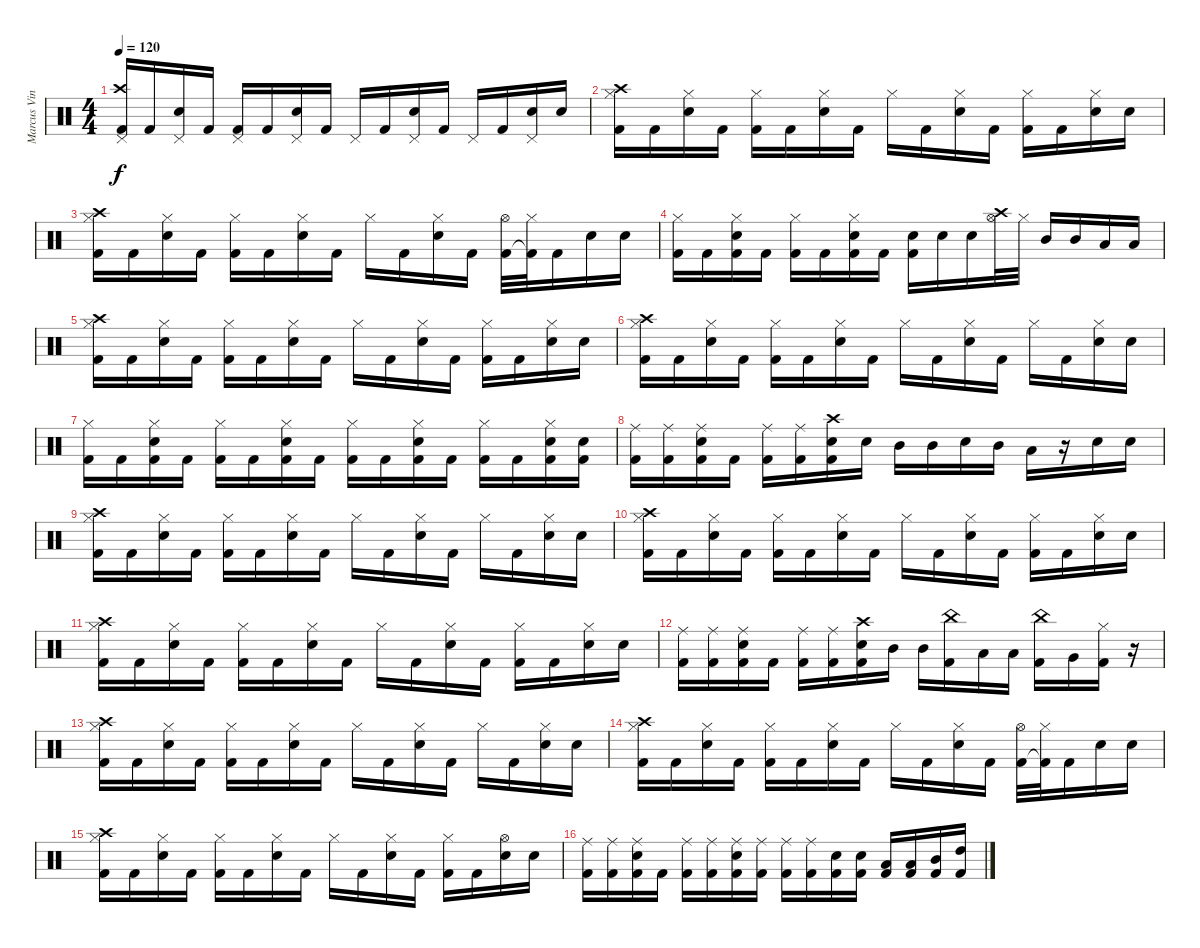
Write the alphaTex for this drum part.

\track ("Marcus Vinicius" "Marcus Vin") {instrument percussion}
\staff {score}
\articulation defaults
\ts (4 4)
\tempo 120
\clef neutral
\ks c
("Kick (hit) 2" "Crash high (hit)" "Pedal Hi-Hat (hit)").16{dy f} "Kick (hit) 2".16 ("Electric Snare (hit)" "Pedal Hi-Hat (hit)").16 "Kick (hit) 2".16 ("Kick (hit) 2" "Pedal Hi-Hat (hit)").16 "Kick (hit) 2".16 ("Electric Snare (hit)" "Pedal Hi-Hat (hit)").16 "Kick (hit) 2".16 "Pedal Hi-Hat (hit)".16 "Kick (hit) 2".16 ("Electric Snare (hit)" "Pedal Hi-Hat (hit)").16 "Kick (hit) 2".16 "Pedal Hi-Hat (hit)".16 "Kick (hit) 2".16 ("Electric Snare (hit)" "Pedal Hi-Hat (hit)").16 "Electric Snare (hit)".16 |
("Kick (hit) 2" "Crash high (hit)" "Hi-Hat (closed)").16 "Kick (hit) 2".16 ("Electric Snare (hit)" "Hi-Hat (closed)").16 "Kick (hit) 2".16 ("Kick (hit) 2" "Hi-Hat (closed)").16 "Kick (hit) 2".16 ("Electric Snare (hit)" "Hi-Hat (closed)").16 "Kick (hit) 2".16 "Hi-Hat (closed)".16 "Kick (hit) 2".16 ("Electric Snare (hit)" "Hi-Hat (closed)").16 "Kick (hit) 2".16 ("Kick (hit) 2" "Hi-Hat (closed)").16 "Kick (hit) 2".16 ("Electric Snare (hit)" "Hi-Hat (closed)").16 "Electric Snare (hit)".16 |
("Kick (hit) 2" "Crash high (hit)" "Hi-Hat (closed)").16 "Kick (hit) 2".16 ("Electric Snare (hit)" "Hi-Hat (closed)").16 "Kick (hit) 2".16 ("Kick (hit) 2" "Hi-Hat (closed)").16 "Kick (hit) 2".16 ("Electric Snare (hit)" "Hi-Hat (closed)").16 "Kick (hit) 2".16 "Hi-Hat (closed)".16 "Kick (hit) 2".16 ("Electric Snare (hit)" "Hi-Hat (closed)").16 "Kick (hit) 2".16 ("Kick (hit) 2" "Hi-Hat (open)").32 ("Kick (hit) 2"{t} "Hi-Hat (closed)").32 "Kick (hit) 2".16 "Electric Snare (hit)".16 "Electric Snare (hit)".16 |
("Kick (hit) 2" "Hi-Hat (closed)").16 "Kick (hit) 2".16 ("Kick (hit) 2" "Electric Snare (hit)" "Hi-Hat (closed)").16 "Kick (hit) 2".16 ("Kick (hit) 2" "Hi-Hat (closed)").16 "Kick (hit) 2".16 ("Kick (hit) 2" "Electric Snare (hit)" "Hi-Hat (closed)").16 "Kick (hit) 2".16 ("Kick (hit) 2" "Electric Snare (hit)").16 "Electric Snare (hit)".16 "Electric Snare (hit)".16 ("Hi-Hat (open)" "Crash high (hit)").32 "Hi-Hat (closed)".32 "Mid Tom (hit)".16 "Mid Tom (hit)".16 "Low Tom (hit)".16 "Low Tom (hit)".16 |
("Kick (hit) 2" "Crash high (hit)" "Hi-Hat (closed)").16 "Kick (hit) 2".16 ("Electric Snare (hit)" "Hi-Hat (closed)").16 "Kick (hit) 2".16 ("Kick (hit) 2" "Hi-Hat (closed)").16 "Kick (hit) 2".16 ("Electric Snare (hit)" "Hi-Hat (closed)").16 "Kick (hit) 2".16 "Hi-Hat (closed)".16 "Kick (hit) 2".16 ("Electric Snare (hit)" "Hi-Hat (closed)").16 "Kick (hit) 2".16 ("Kick (hit) 2" "Hi-Hat (closed)").16 "Kick (hit) 2".16 ("Electric Snare (hit)" "Hi-Hat (closed)").16 "Electric Snare (hit)".16 |
("Kick (hit) 2" "Crash high (hit)" "Hi-Hat (closed)").16 "Kick (hit) 2".16 ("Electric Snare (hit)" "Hi-Hat (closed)").16 "Kick (hit) 2".16 ("Kick (hit) 2" "Hi-Hat (closed)").16 "Kick (hit) 2".16 ("Electric Snare (hit)" "Hi-Hat (closed)").16 "Kick (hit) 2".16 "Hi-Hat (closed)".16 "Kick (hit) 2".16 ("Electric Snare (hit)" "Hi-Hat (closed)").16 "Kick (hit) 2".16 "Hi-Hat (closed)".16 "Kick (hit) 2".16 ("Electric Snare (hit)" "Hi-Hat (closed)").16 "Electric Snare (hit)".16 |
("Kick (hit) 2" "Hi-Hat (closed)").16 "Kick (hit) 2".16 ("Kick (hit) 2" "Electric Snare (hit)" "Hi-Hat (closed)").16 "Kick (hit) 2".16 ("Kick (hit) 2" "Hi-Hat (closed)").16 "Kick (hit) 2".16 ("Kick (hit) 2" "Electric Snare (hit)" "Hi-Hat (closed)").16 "Kick (hit) 2".16 ("Kick (hit) 2" "Hi-Hat (closed)").16 "Kick (hit) 2".16 ("Kick (hit) 2" "Electric Snare (hit)" "Hi-Hat (closed)").16 "Kick (hit) 2".16 ("Kick (hit) 2" "Hi-Hat (closed)").16 "Kick (hit) 2".16 ("Kick (hit) 2" "Electric Snare (hit)" "Hi-Hat (closed)").16 ("Kick (hit) 2" "Electric Snare (hit)").16 |
("Kick (hit) 2" "Ride (middle)").16 ("Kick (hit) 2" "Ride (middle)").16 ("Kick (hit) 2" "Electric Snare (hit)" "Ride (middle)").16 "Kick (hit) 2".16 ("Kick (hit) 2" "Ride (middle)").16 ("Kick (hit) 2" "Ride (middle)").16 ("Kick (hit) 2" "Electric Snare (hit)" "Crash high (hit)").16 "Electric Snare (hit)".16 "Mid Tom (hit)".16 "Mid Tom (hit)".16 "Electric Snare (hit)".16 "Mid Tom (hit)".16 "Low Tom (hit)".16 r.16 "Electric Snare (hit)".16 "Electric Snare (hit)".16 |
("Kick (hit) 2" "Crash high (hit)" "Hi-Hat (closed)").16 "Kick (hit) 2".16 ("Electric Snare (hit)" "Hi-Hat (closed)").16 "Kick (hit) 2".16 ("Kick (hit) 2" "Hi-Hat (closed)").16 "Kick (hit) 2".16 ("Electric Snare (hit)" "Hi-Hat (closed)").16 "Kick (hit) 2".16 "Hi-Hat (closed)".16 "Kick (hit) 2".16 ("Electric Snare (hit)" "Hi-Hat (closed)").16 "Kick (hit) 2".16 "Hi-Hat (closed)".16 "Kick (hit) 2".16 ("Electric Snare (hit)" "Hi-Hat (closed)").16 "Electric Snare (hit)".16 |
("Kick (hit) 2" "Crash high (hit)" "Hi-Hat (closed)").16 "Kick (hit) 2".16 ("Electric Snare (hit)" "Hi-Hat (closed)").16 "Kick (hit) 2".16 ("Kick (hit) 2" "Hi-Hat (closed)").16 "Kick (hit) 2".16 ("Electric Snare (hit)" "Hi-Hat (closed)").16 "Kick (hit) 2".16 "Hi-Hat (closed)".16 "Kick (hit) 2".16 ("Electric Snare (hit)" "Hi-Hat (closed)").16 "Kick (hit) 2".16 ("Kick (hit) 2" "Hi-Hat (closed)").16 "Kick (hit) 2".16 ("Electric Snare (hit)" "Hi-Hat (closed)").16 "Electric Snare (hit)".16 |
("Kick (hit) 2" "Crash high (hit)" "Hi-Hat (closed)").16 "Kick (hit) 2".16 ("Electric Snare (hit)" "Hi-Hat (closed)").16 "Kick (hit) 2".16 ("Kick (hit) 2" "Hi-Hat (closed)").16 "Kick (hit) 2".16 ("Electric Snare (hit)" "Hi-Hat (closed)").16 "Kick (hit) 2".16 "Hi-Hat (closed)".16 "Kick (hit) 2".16 ("Electric Snare (hit)" "Hi-Hat (closed)").16 "Kick (hit) 2".16 ("Kick (hit) 2" "Hi-Hat (closed)").16 "Kick (hit) 2".16 ("Electric Snare (hit)" "Hi-Hat (closed)").16 "Electric Snare (hit)".16 |
("Kick (hit) 2" "Ride (middle)").16 ("Kick (hit) 2" "Ride (middle)").16 ("Kick (hit) 2" "Electric Snare (hit)" "Ride (middle)").16 "Kick (hit) 2".16 ("Kick (hit) 2" "Ride (middle)").16 ("Kick (hit) 2" "Ride (middle)").16 ("Kick (hit) 2" "Electric Snare (hit)" "Crash high (hit)").16 "Mid Tom (hit)".16 "Mid Tom (hit)".16 ("Kick (hit) 2" "China (hit)").16 "Low Tom (hit)".16 "Low Tom (hit)".16 ("Kick (hit) 2" "China (hit)").16 "Very Low Tom (hit)".16 ("Kick (hit) 2" "Hi-Hat (closed)").16 r.16 |
("Kick (hit) 2" "Crash high (hit)" "Hi-Hat (closed)").16 "Kick (hit) 2".16 ("Electric Snare (hit)" "Hi-Hat (closed)").16 "Kick (hit) 2".16 ("Kick (hit) 2" "Hi-Hat (closed)").16 "Kick (hit) 2".16 ("Electric Snare (hit)" "Hi-Hat (closed)").16 "Kick (hit) 2".16 "Hi-Hat (closed)".16 "Kick (hit) 2".16 ("Electric Snare (hit)" "Hi-Hat (closed)").16 "Kick (hit) 2".16 "Hi-Hat (closed)".16 "Kick (hit) 2".16 ("Electric Snare (hit)" "Hi-Hat (closed)").16 "Electric Snare (hit)".16 |
("Kick (hit) 2" "Crash high (hit)" "Hi-Hat (closed)").16 "Kick (hit) 2".16 ("Electric Snare (hit)" "Hi-Hat (closed)").16 "Kick (hit) 2".16 ("Kick (hit) 2" "Hi-Hat (closed)").16 "Kick (hit) 2".16 ("Electric Snare (hit)" "Hi-Hat (closed)").16 "Kick (hit) 2".16 "Hi-Hat (closed)".16 "Kick (hit) 2".16 ("Electric Snare (hit)" "Hi-Hat (closed)").16 "Kick (hit) 2".16 ("Kick (hit) 2" "Hi-Hat (open)").32 ("Kick (hit) 2"{t} "Hi-Hat (closed)").32 "Kick (hit) 2".16 "Electric Snare (hit)".16 "Electric Snare (hit)".16 |
("Kick (hit) 2" "Crash high (hit)" "Hi-Hat (closed)").16 "Kick (hit) 2".16 ("Electric Snare (hit)" "Hi-Hat (closed)").16 "Kick (hit) 2".16 ("Kick (hit) 2" "Hi-Hat (closed)").16 "Kick (hit) 2".16 ("Electric Snare (hit)" "Hi-Hat (closed)").16 "Kick (hit) 2".16 "Hi-Hat (closed)".16 "Kick (hit) 2".16 ("Electric Snare (hit)" "Hi-Hat (closed)").16 "Kick (hit) 2".16 ("Kick (hit) 2" "Hi-Hat (closed)").16 "Kick (hit) 2".16 ("Electric Snare (hit)" "Hi-Hat (open)").16 "Electric Snare (hit)".16 |
("Kick (hit) 2" "Ride (middle)").16 ("Kick (hit) 2" "Ride (middle)").16 ("Kick (hit) 2" "Electric Snare (hit)" "Ride (middle)").16 "Kick (hit) 2".16 ("Kick (hit) 2" "Ride (middle)").16 ("Kick (hit) 2" "Ride (middle)").16 ("Kick (hit) 2" "Electric Snare (hit)" "Ride (middle)").16 ("Kick (hit) 2" "Ride (middle)").16 ("Kick (hit) 2" "Ride (middle)").16 ("Kick (hit) 2" "Ride (middle)").16 ("Kick (hit) 2" "Electric Snare (hit)").16 ("Kick (hit) 2" "Electric Snare (hit)").16 ("Kick (hit) 2" "Low Tom (hit)").16 ("Kick (hit) 2" "Low Tom (hit)").16 ("Kick (hit) 2" "Mid Tom (hit)").16 ("Kick (hit) 2" "High Tom (hit)").16
